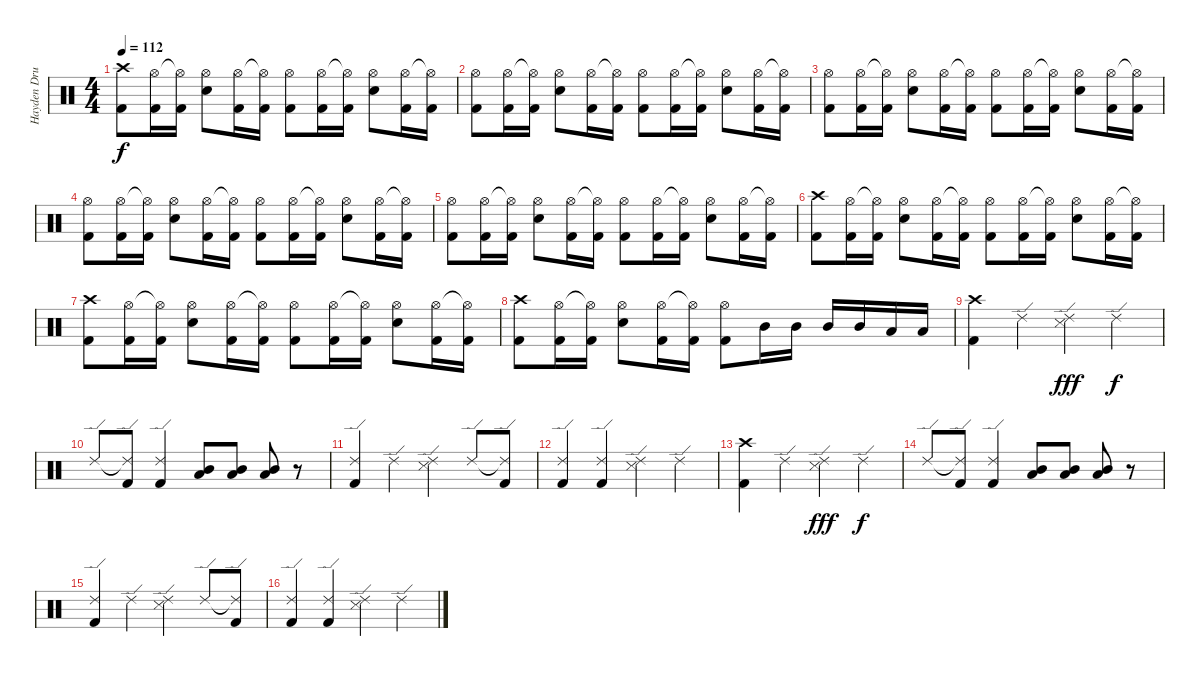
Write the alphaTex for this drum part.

\track ("Hayden Drums" "Hayden Dru") {instrument percussion}
\staff {score}
\articulation defaults
\ts (4 4)
\tempo 112
\clef neutral
\ks c
("Crash high (hit)" "Kick (hit) 2").8{dy f} ("Hi-Hat (open)" "Kick (hit) 2").16 ("Hi-Hat (open)"{t} "Kick (hit) 2").16 ("Hi-Hat (open)" "Electric Snare (hit)").8 ("Hi-Hat (open)" "Kick (hit) 2").16 ("Hi-Hat (open)"{t} "Kick (hit) 2").16 ("Hi-Hat (open)" "Kick (hit) 2").8 ("Hi-Hat (open)" "Kick (hit) 2").16 ("Hi-Hat (open)"{t} "Kick (hit) 2").16 ("Hi-Hat (open)" "Electric Snare (hit)").8 ("Hi-Hat (open)" "Kick (hit) 2").16 ("Hi-Hat (open)"{t} "Kick (hit) 2").16 |
("Hi-Hat (open)" "Kick (hit) 2").8 ("Hi-Hat (open)" "Kick (hit) 2").16 ("Hi-Hat (open)"{t} "Kick (hit) 2").16 ("Hi-Hat (open)" "Electric Snare (hit)").8 ("Hi-Hat (open)" "Kick (hit) 2").16 ("Hi-Hat (open)"{t} "Kick (hit) 2").16 ("Hi-Hat (open)" "Kick (hit) 2").8 ("Hi-Hat (open)" "Kick (hit) 2").16 ("Hi-Hat (open)"{t} "Kick (hit) 2").16 ("Hi-Hat (open)" "Electric Snare (hit)").8 ("Hi-Hat (open)" "Kick (hit) 2").16 ("Hi-Hat (open)"{t} "Kick (hit) 2").16 |
("Hi-Hat (open)" "Kick (hit) 2").8 ("Hi-Hat (open)" "Kick (hit) 2").16 ("Hi-Hat (open)"{t} "Kick (hit) 2").16 ("Hi-Hat (open)" "Electric Snare (hit)").8 ("Hi-Hat (open)" "Kick (hit) 2").16 ("Hi-Hat (open)"{t} "Kick (hit) 2").16 ("Hi-Hat (open)" "Kick (hit) 2").8 ("Hi-Hat (open)" "Kick (hit) 2").16 ("Hi-Hat (open)"{t} "Kick (hit) 2").16 ("Hi-Hat (open)" "Electric Snare (hit)").8 ("Hi-Hat (open)" "Kick (hit) 2").16 ("Hi-Hat (open)"{t} "Kick (hit) 2").16 |
("Hi-Hat (open)" "Kick (hit) 2").8 ("Hi-Hat (open)" "Kick (hit) 2").16 ("Hi-Hat (open)"{t} "Kick (hit) 2").16 ("Hi-Hat (open)" "Electric Snare (hit)").8 ("Hi-Hat (open)" "Kick (hit) 2").16 ("Hi-Hat (open)"{t} "Kick (hit) 2").16 ("Hi-Hat (open)" "Kick (hit) 2").8 ("Hi-Hat (open)" "Kick (hit) 2").16 ("Hi-Hat (open)"{t} "Kick (hit) 2").16 ("Hi-Hat (open)" "Electric Snare (hit)").8 ("Hi-Hat (open)" "Kick (hit) 2").16 ("Hi-Hat (open)"{t} "Kick (hit) 2").16 |
("Hi-Hat (open)" "Kick (hit) 2").8 ("Hi-Hat (open)" "Kick (hit) 2").16 ("Hi-Hat (open)"{t} "Kick (hit) 2").16 ("Hi-Hat (open)" "Electric Snare (hit)").8 ("Hi-Hat (open)" "Kick (hit) 2").16 ("Hi-Hat (open)"{t} "Kick (hit) 2").16 ("Hi-Hat (open)" "Kick (hit) 2").8 ("Hi-Hat (open)" "Kick (hit) 2").16 ("Hi-Hat (open)"{t} "Kick (hit) 2").16 ("Hi-Hat (open)" "Electric Snare (hit)").8 ("Hi-Hat (open)" "Kick (hit) 2").16 ("Hi-Hat (open)"{t} "Kick (hit) 2").16 |
("Crash high (hit)" "Kick (hit) 2").8 ("Hi-Hat (open)" "Kick (hit) 2").16 ("Hi-Hat (open)"{t} "Kick (hit) 2").16 ("Hi-Hat (open)" "Electric Snare (hit)").8 ("Hi-Hat (open)" "Kick (hit) 2").16 ("Hi-Hat (open)"{t} "Kick (hit) 2").16 ("Hi-Hat (open)" "Kick (hit) 2").8 ("Hi-Hat (open)" "Kick (hit) 2").16 ("Hi-Hat (open)"{t} "Kick (hit) 2").16 ("Hi-Hat (open)" "Electric Snare (hit)").8 ("Hi-Hat (open)" "Kick (hit) 2").16 ("Hi-Hat (open)"{t} "Kick (hit) 2").16 |
("Crash high (hit)" "Kick (hit) 2").8 ("Hi-Hat (open)" "Kick (hit) 2").16 ("Hi-Hat (open)"{t} "Kick (hit) 2").16 ("Hi-Hat (open)" "Electric Snare (hit)").8 ("Hi-Hat (open)" "Kick (hit) 2").16 ("Hi-Hat (open)"{t} "Kick (hit) 2").16 ("Hi-Hat (open)" "Kick (hit) 2").8 ("Hi-Hat (open)" "Kick (hit) 2").16 ("Hi-Hat (open)"{t} "Kick (hit) 2").16 ("Hi-Hat (open)" "Electric Snare (hit)").8 ("Hi-Hat (open)" "Kick (hit) 2").16 ("Hi-Hat (open)"{t} "Kick (hit) 2").16 |
("Crash high (hit)" "Kick (hit) 2").8 ("Hi-Hat (open)" "Kick (hit) 2").16 ("Hi-Hat (open)"{t} "Kick (hit) 2").16 ("Hi-Hat (open)" "Electric Snare (hit)").8 ("Hi-Hat (open)" "Kick (hit) 2").16 ("Hi-Hat (open)"{t} "Kick (hit) 2").16 ("Hi-Hat (open)" "Kick (hit) 2").8 "Mid Tom (hit)".16 "Mid Tom (hit)".16 "Mid Tom (hit)".16 "Mid Tom (hit)".16 "Low Tom (hit)".16 "Low Tom (hit)".16 |
("Crash high (hit)" "Kick (hit) 2").4 "Ride (edge) 2".4 ("Ride (edge) 2" "Snare (side stick) 3").4{dy fff} "Ride (edge) 2".4{dy f} |
"Ride (edge) 2".8 ("Ride (edge) 2"{t} "Kick (hit) 2").8 ("Ride (edge) 2" "Kick (hit) 2").4 ("Low Tom (hit)" "Mid Tom (hit)").8 ("Low Tom (hit)" "Mid Tom (hit)").8 ("Low Tom (hit)" "Mid Tom (hit)").8 r.8 |
("Ride (edge) 2" "Kick (hit) 2").4 "Ride (edge) 2".4 ("Ride (edge) 2" "Snare (side stick) 3").4 "Ride (edge) 2".8 ("Ride (edge) 2"{t} "Kick (hit) 2").8 |
("Ride (edge) 2" "Kick (hit) 2").4 ("Ride (edge) 2" "Kick (hit) 2").4 ("Ride (edge) 2" "Snare (side stick) 3").4 "Ride (edge) 2".4 |
("Crash high (hit)" "Kick (hit) 2").4 "Ride (edge) 2".4 ("Ride (edge) 2" "Snare (side stick) 3").4{dy fff} "Ride (edge) 2".4{dy f} |
"Ride (edge) 2".8 ("Ride (edge) 2"{t} "Kick (hit) 2").8 ("Ride (edge) 2" "Kick (hit) 2").4 ("Low Tom (hit)" "Mid Tom (hit)").8 ("Low Tom (hit)" "Mid Tom (hit)").8 ("Low Tom (hit)" "Mid Tom (hit)").8 r.8 |
("Ride (edge) 2" "Kick (hit) 2").4 "Ride (edge) 2".4 ("Ride (edge) 2" "Snare (side stick) 3").4 "Ride (edge) 2".8 ("Ride (edge) 2"{t} "Kick (hit) 2").8 |
("Ride (edge) 2" "Kick (hit) 2").4 ("Ride (edge) 2" "Kick (hit) 2").4 ("Ride (edge) 2" "Snare (side stick) 3").4 "Ride (edge) 2".4
